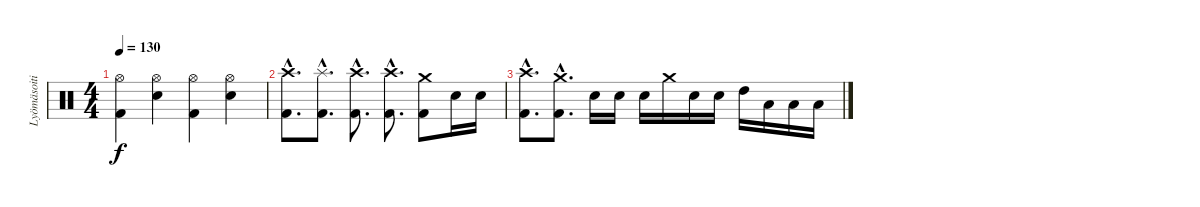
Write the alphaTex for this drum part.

\track ("Lyömäsoitin" "Lyömäsoiti") {instrument percussion}
\staff {score}
\articulation defaults
\ts (4 4)
\tempo 130
\clef neutral
\ks c
("Hi-Hat (open)" "Kick (hit) 2").4{dy f} ("Hi-Hat (open)" "Electric Snare (hit)").4 ("Hi-Hat (open)" "Kick (hit) 2").4 ("Hi-Hat (open)" "Electric Snare (hit)").4 |
("Crash high (hit)"{hac} "Kick (hit) 2"{hac}).8{d} ("Splash (hit)"{hac} "Kick (hit) 2"{hac}).8{d} ("Crash high (hit)"{hac} "Kick (hit) 2"{hac}).8{d} ("Crash high (hit)"{hac} "Kick (hit) 2"{hac}).8{d} ("Kick (hit) 2" "Crash medium (hit)").8 "Electric Snare (hit)".16 "Electric Snare (hit)".16 |
("Crash high (hit)"{hac} "Kick (hit) 2"{hac}).8{d} ("Crash medium (hit)"{hac} "Kick (hit) 2"{hac}).8{d} "Electric Snare (hit)".16 "Electric Snare (hit)".16 "Electric Snare (hit)".16 "Crash medium (hit)".16 "Electric Snare (hit)".16 "Electric Snare (hit)".16 "High Tom (hit)".16 "Low Tom (hit)".16 "Low Tom (hit)".16 "Low Floor Tom (hit)".16
